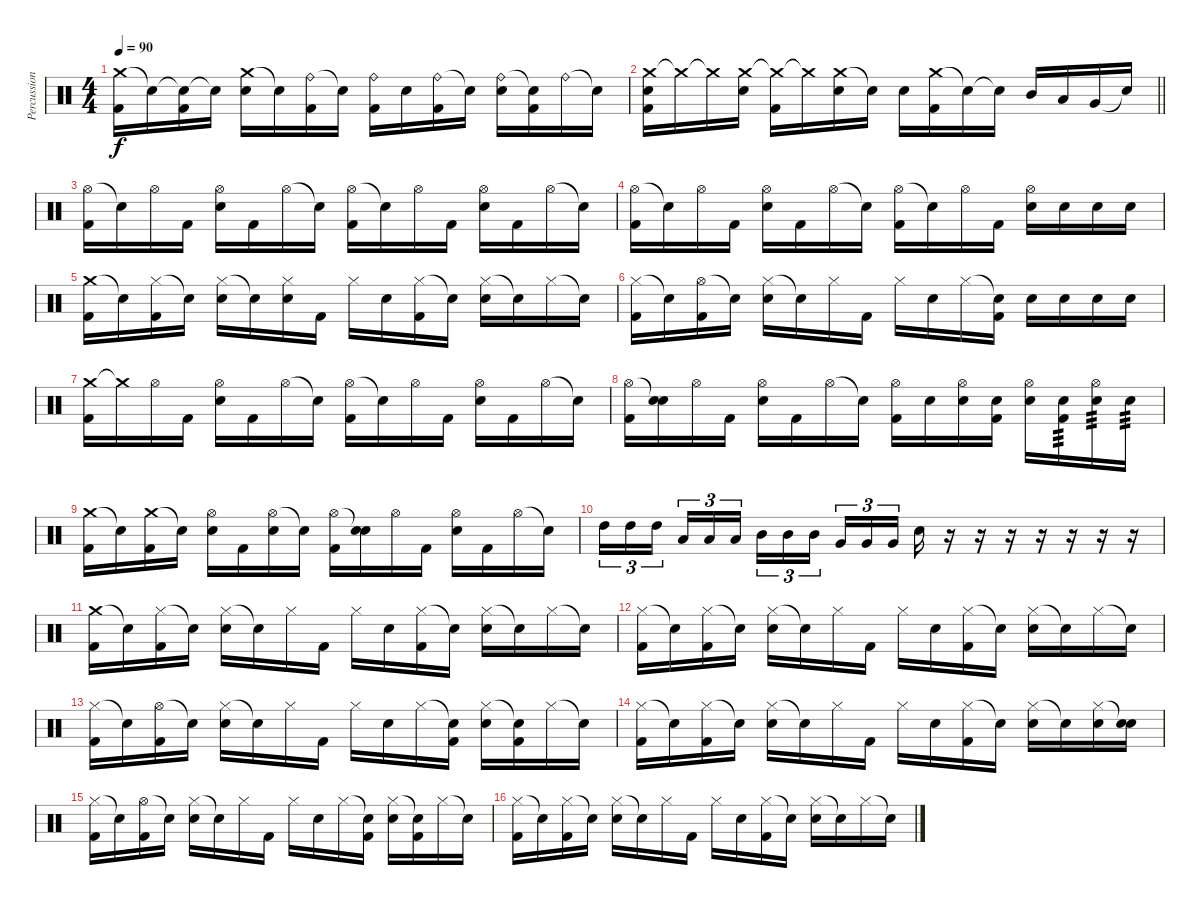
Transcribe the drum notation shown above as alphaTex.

\track ("Percussion" "Percussion") {instrument percussion}
\staff {score}
\articulation defaults
\ts (4 4)
\tempo 90
\clef neutral
\ks c
("Crash medium (hit)" "Kick (hit) 2").16{dy f} "Snare (hit)"{t}.16 ("Snare (hit)"{t} "Kick (hit) 2").16 "Snare (hit)"{t}.16 ("Crash medium (hit)" "Snare (hit) 2").16 "Snare (hit)"{t}.16 ("Ride (bell)" "Kick (hit) 2").16 "Snare (hit)"{t}.16 ("Ride (bell)" "Kick (hit) 2").16 "Snare (hit) 2".16 ("Ride (bell)" "Kick (hit) 2").16 "Snare (hit)"{t}.16 ("Ride (bell)" "Snare (hit) 2").16 ("Snare (hit)"{t} "Kick (hit) 2").16 "Ride (bell)".16 "Snare (hit)"{t}.16 |
\barLineRight lightlight
("Crash medium (hit)" "Snare (hit) 2" "Kick (hit) 2").16 "Crash medium (hit)"{t}.16 "Crash medium (hit)"{t}.16 ("Crash medium (hit)" "Snare (hit) 2").16 ("Crash medium (hit)"{t} "Kick (hit) 2").16 "Crash medium (hit)"{t}.16 ("Crash medium (hit)" "Snare (hit) 2").16 "Snare (hit)"{t}.16 "Snare (hit) 2".16 ("Crash medium (hit)" "Kick (hit) 2").16 "Snare (hit)"{t}.16 "Snare (hit)"{t}.16 "Mid Tom (hit)".16 "Low Tom (hit)".16 "Very Low Tom (hit)".16 "Snare (hit)"{t}.16 |
("Hi-Hat (open)" "Kick (hit) 2").16 "Snare (hit)"{t}.16 "Hi-Hat (open)".16 "Kick (hit) 2".16 ("Hi-Hat (open)" "Snare (hit) 2").16 "Kick (hit) 2".16 "Hi-Hat (open)".16 "Snare (hit)"{t}.16 ("Hi-Hat (open)" "Kick (hit) 2").16 "Snare (hit)"{t}.16 "Hi-Hat (open)".16 "Kick (hit) 2".16 ("Hi-Hat (open)" "Snare (hit) 2").16 "Kick (hit) 2".16 "Hi-Hat (open)".16 "Snare (hit)"{t}.16 |
("Hi-Hat (open)" "Kick (hit) 2").16 "Snare (hit)"{t}.16 "Hi-Hat (open)".16 "Kick (hit) 2".16 ("Hi-Hat (open)" "Snare (hit) 2").16 "Kick (hit) 2".16 "Hi-Hat (open)".16 "Snare (hit)"{t}.16 ("Hi-Hat (open)" "Kick (hit) 2").16 "Snare (hit)"{t}.16 "Hi-Hat (open)".16 "Kick (hit) 2".16 ("Hi-Hat (open)" "Snare (hit) 2").16 "Snare (hit) 2".16 "Snare (hit) 2".16 "Snare (hit) 2".16 |
("Crash medium (hit)" "Kick (hit) 2").16 "Snare (hit)"{t}.16 ("Hi-Hat (closed)" "Kick (hit) 2").16 "Snare (hit)"{t}.16 ("Hi-Hat (closed)" "Snare (hit) 2").16 "Snare (hit)"{t}.16 ("Hi-Hat (closed)" "Snare (hit) 2").16 "Kick (hit) 2".16 "Hi-Hat (closed)".16 "Snare (hit) 2".16 ("Hi-Hat (closed)" "Kick (hit) 2").16 "Snare (hit)"{t}.16 ("Hi-Hat (closed)" "Snare (hit) 2").16 "Snare (hit)"{t}.16 "Hi-Hat (closed)".16 "Snare (hit)"{t}.16 |
("Hi-Hat (closed)" "Kick (hit) 2").16 "Snare (hit)"{t}.16 ("Hi-Hat (open)" "Kick (hit) 2").16 "Snare (hit)"{t}.16 ("Hi-Hat (closed)" "Snare (hit) 2").16 "Snare (hit)"{t}.16 "Hi-Hat (closed)".16 "Kick (hit) 2".16 "Hi-Hat (closed)".16 "Snare (hit) 2".16 "Hi-Hat (closed)".16 ("Snare (hit)"{t} "Kick (hit) 2").16 "Snare (hit) 2".16 "Snare (hit) 2".16 "Snare (hit) 2".16 "Snare (hit) 2".16 |
("Crash medium (hit)" "Kick (hit) 2").16 "Crash medium (hit)"{t}.16 "Hi-Hat (open)".16 "Kick (hit) 2".16 ("Hi-Hat (open)" "Snare (hit) 2").16 "Kick (hit) 2".16 "Hi-Hat (open)".16 "Snare (hit)"{t}.16 ("Hi-Hat (open)" "Kick (hit) 2").16 "Snare (hit)"{t}.16 "Hi-Hat (open)".16 "Kick (hit) 2".16 ("Hi-Hat (open)" "Snare (hit) 2").16 "Kick (hit) 2".16 "Hi-Hat (open)".16 "Snare (hit)"{t}.16 |
("Hi-Hat (open)" "Kick (hit) 2").16 ("Snare (hit)"{t} "Snare (hit) 2").16 "Hi-Hat (open)".16 "Kick (hit) 2".16 ("Hi-Hat (open)" "Snare (hit) 2").16 "Kick (hit) 2".16 "Hi-Hat (open)".16 "Snare (hit)"{t}.16 ("Hi-Hat (open)" "Kick (hit) 2").16 "Snare (hit) 2".16 ("Hi-Hat (open)" "Snare (hit) 2").16 ("Snare (hit) 2" "Kick (hit) 2").16 ("Hi-Hat (open)" "Snare (hit) 2").16 ("Snare (hit) 2" "Kick (hit) 2").16{tp 3} ("Hi-Hat (open)" "Snare (hit) 2").16{tp 3} "Snare (hit) 2".16{tp 3} |
("Crash medium (hit)" "Kick (hit) 2").16 "Snare (hit)"{t}.16 ("Crash medium (hit)" "Kick (hit) 2").16 "Snare (hit)"{t}.16 ("Hi-Hat (open)" "Snare (hit) 2").16 "Kick (hit) 2".16 ("Hi-Hat (open)" "Snare (hit) 2").16 "Snare (hit)"{t}.16 ("Hi-Hat (open)" "Kick (hit) 2").16 ("Snare (hit)"{t} "Snare (hit) 2").16 "Hi-Hat (open)".16 "Kick (hit) 2".16 ("Hi-Hat (open)" "Snare (hit) 2").16 "Kick (hit) 2".16 "Hi-Hat (open)".16 "Snare (hit)"{t}.16 |
"High Tom (hit)".16{tu (3 2)} "High Tom (hit)".16{tu (3 2)} "High Tom (hit)".16{tu (3 2) beam splitsecondary} "Low Tom (hit)".16{tu (3 2)} "Low Tom (hit)".16{tu (3 2)} "Low Tom (hit)".16{tu (3 2)} "Mid Tom (hit)".16{tu (3 2)} "Mid Tom (hit)".16{tu (3 2)} "Mid Tom (hit)".16{tu (3 2) beam splitsecondary} "Very Low Tom (hit)".16{tu (3 2)} "Very Low Tom (hit)".16{tu (3 2)} "Very Low Tom (hit)".16{tu (3 2)} "Snare (hit) 2".16 r.16 r.16 r.16 r.16 r.16 r.16 r.16 |
("Crash medium (hit)" "Kick (hit) 2").16 "Snare (hit)"{t}.16 ("Hi-Hat (closed)" "Kick (hit) 2").16 "Snare (hit)"{t}.16 ("Hi-Hat (closed)" "Snare (hit) 2").16 "Snare (hit)"{t}.16 "Hi-Hat (closed)".16 "Kick (hit) 2".16 "Hi-Hat (closed)".16 "Snare (hit) 2".16 ("Hi-Hat (closed)" "Kick (hit) 2").16 "Snare (hit)"{t}.16 ("Hi-Hat (closed)" "Snare (hit) 2").16 "Snare (hit)"{t}.16 "Hi-Hat (closed)".16 "Snare (hit)"{t}.16 |
("Hi-Hat (closed)" "Kick (hit) 2").16 "Snare (hit)"{t}.16 ("Hi-Hat (closed)" "Kick (hit) 2").16 "Snare (hit)"{t}.16 ("Hi-Hat (closed)" "Snare (hit) 2").16 "Snare (hit)"{t}.16 "Hi-Hat (closed)".16 "Kick (hit) 2".16 "Hi-Hat (closed)".16 "Snare (hit) 2".16 ("Hi-Hat (closed)" "Kick (hit) 2").16 "Snare (hit)"{t}.16 ("Hi-Hat (closed)" "Snare (hit) 2").16 "Snare (hit)"{t}.16 "Hi-Hat (closed)".16 "Snare (hit)"{t}.16 |
("Hi-Hat (closed)" "Kick (hit) 2").16 "Snare (hit)"{t}.16 ("Hi-Hat (open)" "Kick (hit) 2").16 "Snare (hit)"{t}.16 ("Hi-Hat (closed)" "Snare (hit) 2").16 "Snare (hit)"{t}.16 "Hi-Hat (closed)".16 "Kick (hit) 2".16 "Hi-Hat (closed)".16 "Snare (hit) 2".16 "Hi-Hat (closed)".16 ("Snare (hit)"{t} "Kick (hit) 2").16 ("Hi-Hat (closed)" "Snare (hit) 2").16 ("Snare (hit)"{t} "Kick (hit) 2").16 "Hi-Hat (closed)".16 "Snare (hit)"{t}.16 |
("Hi-Hat (closed)" "Kick (hit) 2").16 "Snare (hit)"{t}.16 ("Hi-Hat (closed)" "Kick (hit) 2").16 "Snare (hit)"{t}.16 ("Hi-Hat (closed)" "Snare (hit) 2").16 "Snare (hit)"{t}.16 "Hi-Hat (closed)".16 "Kick (hit) 2".16 "Hi-Hat (closed)".16 "Snare (hit) 2".16 ("Hi-Hat (closed)" "Kick (hit) 2").16 "Snare (hit)"{t}.16 ("Hi-Hat (closed)" "Snare (hit) 2").16 "Snare (hit)"{t}.16 ("Hi-Hat (closed)" "Snare (hit) 2").16 ("Snare (hit)"{t} "Snare (hit) 2").16 |
("Hi-Hat (closed)" "Kick (hit) 2").16 "Snare (hit)"{t}.16 ("Hi-Hat (open)" "Kick (hit) 2").16 "Snare (hit)"{t}.16 ("Hi-Hat (closed)" "Snare (hit) 2").16 "Snare (hit)"{t}.16 "Hi-Hat (closed)".16 "Kick (hit) 2".16 "Hi-Hat (closed)".16 "Snare (hit) 2".16 "Hi-Hat (closed)".16 ("Snare (hit)"{t} "Kick (hit) 2").16 ("Hi-Hat (closed)" "Snare (hit) 2").16 ("Snare (hit)"{t} "Kick (hit) 2").16 "Hi-Hat (closed)".16 "Snare (hit)"{t}.16 |
("Hi-Hat (closed)" "Kick (hit) 2").16 "Snare (hit)"{t}.16 ("Hi-Hat (closed)" "Kick (hit) 2").16 "Snare (hit)"{t}.16 ("Hi-Hat (closed)" "Snare (hit) 2").16 "Snare (hit)"{t}.16 "Hi-Hat (closed)".16 "Kick (hit) 2".16 "Hi-Hat (closed)".16 "Snare (hit) 2".16 ("Hi-Hat (closed)" "Kick (hit) 2").16 "Snare (hit)"{t}.16 ("Hi-Hat (closed)" "Snare (hit) 2").16 "Snare (hit)"{t}.16 "Hi-Hat (closed)".16 "Snare (hit)"{t}.16
